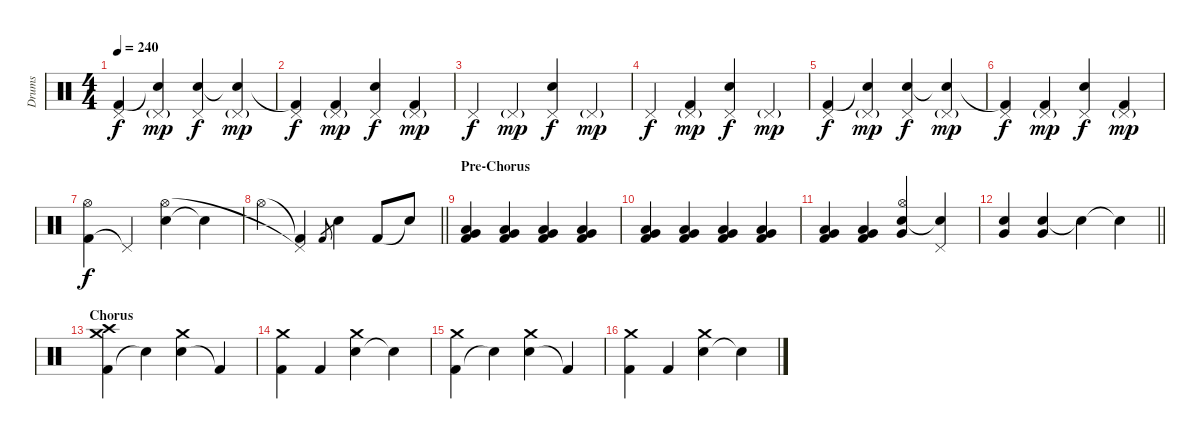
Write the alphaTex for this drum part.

\track ("Drums" "Drums") {instrument percussion}
\staff {score}
\articulation defaults
\ts (4 4)
\tempo 240
\clef neutral
\ks c
("Kick (hit) 2" "Pedal Hi-Hat (hit)").4{dy f} ("Electric Snare (hit)"{t} "Pedal Hi-Hat (hit)"{g}).4{dy mp} ("Electric Snare (hit)" "Pedal Hi-Hat (hit)").4{dy f} ("Snare (hit)"{t} "Pedal Hi-Hat (hit)"{g}).4{dy mp} |
("Kick (hit) 2"{t} "Pedal Hi-Hat (hit)").4{dy f} ("Kick (hit) 2" "Pedal Hi-Hat (hit)"{g}).4{dy mp} ("Electric Snare (hit)" "Pedal Hi-Hat (hit)").4{dy f} ("Kick (hit) 2" "Pedal Hi-Hat (hit)"{g}).4{dy mp} |
"Pedal Hi-Hat (hit)".4{dy f} "Pedal Hi-Hat (hit)"{g}.4{dy mp} ("Electric Snare (hit)" "Pedal Hi-Hat (hit)").4{dy f} "Pedal Hi-Hat (hit)"{g}.4{dy mp} |
"Pedal Hi-Hat (hit)".4{dy f} ("Kick (hit) 2" "Pedal Hi-Hat (hit)"{g}).4{dy mp} ("Electric Snare (hit)" "Pedal Hi-Hat (hit)").4{dy f} "Pedal Hi-Hat (hit)"{g}.4{dy mp} |
("Kick (hit) 2" "Pedal Hi-Hat (hit)").4{dy f} ("Electric Snare (hit)"{t} "Pedal Hi-Hat (hit)"{g}).4{dy mp} ("Electric Snare (hit)" "Pedal Hi-Hat (hit)").4{dy f} ("Snare (hit)"{t} "Pedal Hi-Hat (hit)"{g}).4{dy mp} |
("Kick (hit) 2"{t} "Pedal Hi-Hat (hit)").4{dy f} ("Kick (hit) 2" "Pedal Hi-Hat (hit)"{g}).4{dy mp} ("Electric Snare (hit)" "Pedal Hi-Hat (hit)").4{dy f} ("Kick (hit) 2" "Pedal Hi-Hat (hit)"{g}).4{dy mp} |
("Kick (hit) 2" "Hi-Hat (open)").4{dy f} "Pedal Hi-Hat (hit)"{t}.4 ("Electric Snare (hit)" "Hi-Hat (open)").4 "Snare (hit)"{t}.4 |
\barLineRight lightlight "Hi-Hat (open)".4
("Kick (hit) 2"{t} "Pedal Hi-Hat (hit)"{t}).4 "Kick (hit) 2".8{gr} "Electric Snare (hit)".4 "Kick (hit) 2".8 "Snare (hit)"{t}.8{volume 7} |
\section ("" "Pre-Chorus")
("Very Low Tom (hit)" "Low Tom (hit)" "Kick (hit) 2").4{volume 13} ("Very Low Tom (hit)" "Low Tom (hit)" "Kick (hit) 2").4 ("Very Low Tom (hit)" "Low Tom (hit)" "Kick (hit) 2").4 ("Very Low Tom (hit)" "Low Tom (hit)" "Kick (hit) 2").4 |
("Very Low Tom (hit)" "Low Tom (hit)" "Kick (hit) 2").4 ("Very Low Tom (hit)" "Low Tom (hit)" "Kick (hit) 2").4 ("Very Low Tom (hit)" "Low Tom (hit)" "Kick (hit) 2").4 ("Very Low Tom (hit)" "Low Tom (hit)" "Kick (hit) 2").4 |
("Very Low Tom (hit)" "Low Tom (hit)" "Kick (hit) 2").4 ("Very Low Tom (hit)" "Low Tom (hit)" "Kick (hit) 2").4 ("Electric Snare (hit)" "Very Low Tom (hit)" "Hi-Hat (open)").4 ("Snare (hit)"{t} "Pedal Hi-Hat (hit)").4 |
\barLineRight lightlight
("Electric Snare (hit)" "Very Low Tom (hit)").4 ("Electric Snare (hit)" "Very Low Tom (hit)").4 "Snare (hit)"{t}.4 "Snare (hit)"{t}.4 |
\section ("" "Chorus")
("Kick (hit) 2" "Crash medium (hit)" "Crash high (hit)").4 "Electric Snare (hit)"{t}.4 ("Electric Snare (hit)" "Crash medium (hit)").4 "Kick (hit) 2"{t}.4 |
("Kick (hit) 2" "Crash medium (hit)").4 "Kick (hit) 2".4 ("Electric Snare (hit)" "Crash medium (hit)").4 "Snare (hit)"{t}.4 |
("Kick (hit) 2" "Crash medium (hit)").4 "Electric Snare (hit)"{t}.4 ("Electric Snare (hit)" "Crash medium (hit)").4 "Kick (hit) 2"{t}.4 |
("Kick (hit) 2" "Crash medium (hit)").4 "Kick (hit) 2".4 ("Electric Snare (hit)" "Crash medium (hit)").4 "Snare (hit)"{t}.4
